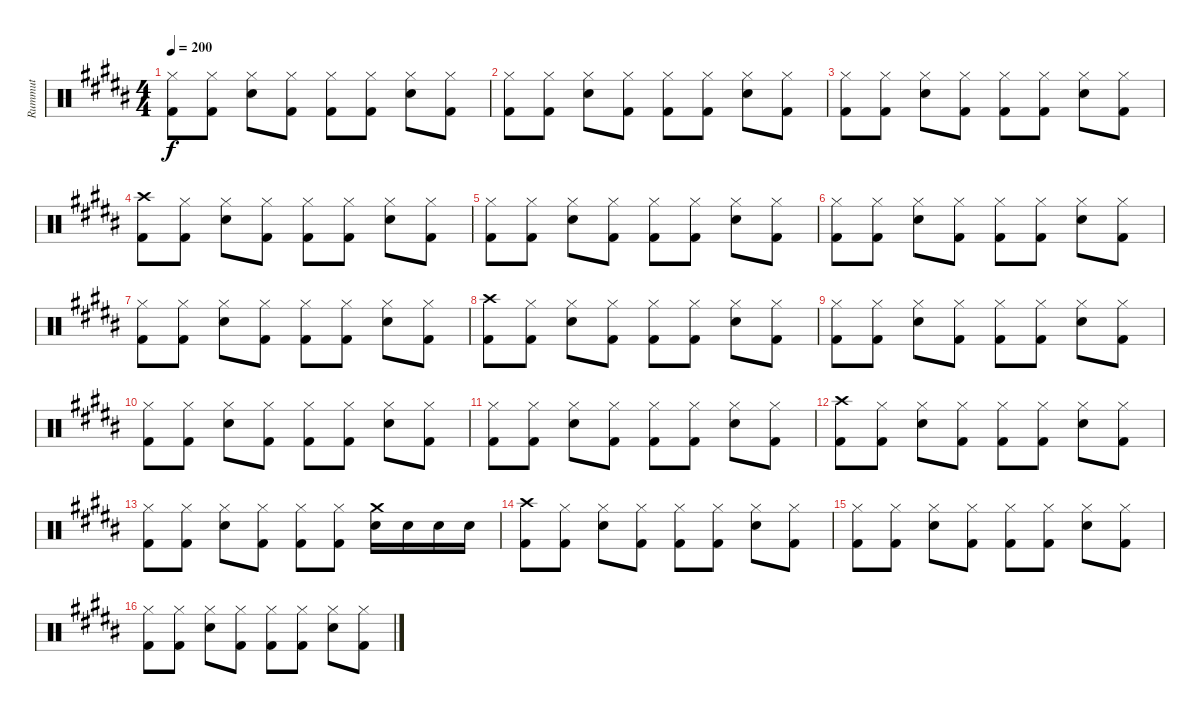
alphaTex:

\track ("Rummut" "Rummut") {instrument percussion}
\staff {score}
\articulation defaults
\ts (4 4)
\tempo 200
\clef neutral
\ks b
("Hi-Hat (closed)" "Kick (hit) 2").8{dy f} ("Hi-Hat (closed)" "Kick (hit) 2").8 ("Hi-Hat (closed)" "Electric Snare (hit)").8 ("Hi-Hat (closed)" "Kick (hit) 2").8 ("Hi-Hat (closed)" "Kick (hit) 2").8 ("Hi-Hat (closed)" "Kick (hit) 2").8 ("Hi-Hat (closed)" "Electric Snare (hit)").8 ("Hi-Hat (closed)" "Kick (hit) 2").8 |
("Hi-Hat (closed)" "Kick (hit) 2").8 ("Hi-Hat (closed)" "Kick (hit) 2").8 ("Hi-Hat (closed)" "Electric Snare (hit)").8 ("Hi-Hat (closed)" "Kick (hit) 2").8 ("Hi-Hat (closed)" "Kick (hit) 2").8 ("Hi-Hat (closed)" "Kick (hit) 2").8 ("Hi-Hat (closed)" "Electric Snare (hit)").8 ("Hi-Hat (closed)" "Kick (hit) 2").8 |
("Hi-Hat (closed)" "Kick (hit) 2").8 ("Hi-Hat (closed)" "Kick (hit) 2").8 ("Hi-Hat (closed)" "Electric Snare (hit)").8 ("Hi-Hat (closed)" "Kick (hit) 2").8 ("Hi-Hat (closed)" "Kick (hit) 2").8 ("Hi-Hat (closed)" "Kick (hit) 2").8 ("Hi-Hat (closed)" "Electric Snare (hit)").8 ("Hi-Hat (closed)" "Kick (hit) 2").8 |
("Crash high (hit)" "Kick (hit) 2").8 ("Hi-Hat (closed)" "Kick (hit) 2").8 ("Hi-Hat (closed)" "Electric Snare (hit)").8 ("Hi-Hat (closed)" "Kick (hit) 2").8 ("Hi-Hat (closed)" "Kick (hit) 2").8 ("Hi-Hat (closed)" "Kick (hit) 2").8 ("Hi-Hat (closed)" "Electric Snare (hit)").8 ("Hi-Hat (closed)" "Kick (hit) 2").8 |
("Hi-Hat (closed)" "Kick (hit) 2").8 ("Hi-Hat (closed)" "Kick (hit) 2").8 ("Hi-Hat (closed)" "Electric Snare (hit)").8 ("Hi-Hat (closed)" "Kick (hit) 2").8 ("Hi-Hat (closed)" "Kick (hit) 2").8 ("Hi-Hat (closed)" "Kick (hit) 2").8 ("Hi-Hat (closed)" "Electric Snare (hit)").8 ("Hi-Hat (closed)" "Kick (hit) 2").8 |
("Hi-Hat (closed)" "Kick (hit) 2").8 ("Hi-Hat (closed)" "Kick (hit) 2").8 ("Hi-Hat (closed)" "Electric Snare (hit)").8 ("Hi-Hat (closed)" "Kick (hit) 2").8 ("Hi-Hat (closed)" "Kick (hit) 2").8 ("Hi-Hat (closed)" "Kick (hit) 2").8 ("Hi-Hat (closed)" "Electric Snare (hit)").8 ("Hi-Hat (closed)" "Kick (hit) 2").8 |
("Hi-Hat (closed)" "Kick (hit) 2").8 ("Hi-Hat (closed)" "Kick (hit) 2").8 ("Hi-Hat (closed)" "Electric Snare (hit)").8 ("Hi-Hat (closed)" "Kick (hit) 2").8 ("Hi-Hat (closed)" "Kick (hit) 2").8 ("Hi-Hat (closed)" "Kick (hit) 2").8 ("Hi-Hat (closed)" "Electric Snare (hit)").8 ("Hi-Hat (closed)" "Kick (hit) 2").8 |
("Crash high (hit)" "Kick (hit) 2").8 ("Hi-Hat (closed)" "Kick (hit) 2").8 ("Hi-Hat (closed)" "Electric Snare (hit)").8 ("Hi-Hat (closed)" "Kick (hit) 2").8 ("Hi-Hat (closed)" "Kick (hit) 2").8 ("Hi-Hat (closed)" "Kick (hit) 2").8 ("Hi-Hat (closed)" "Electric Snare (hit)").8 ("Hi-Hat (closed)" "Kick (hit) 2").8 |
("Hi-Hat (closed)" "Kick (hit) 2").8 ("Hi-Hat (closed)" "Kick (hit) 2").8 ("Hi-Hat (closed)" "Electric Snare (hit)").8 ("Hi-Hat (closed)" "Kick (hit) 2").8 ("Hi-Hat (closed)" "Kick (hit) 2").8 ("Hi-Hat (closed)" "Kick (hit) 2").8 ("Hi-Hat (closed)" "Electric Snare (hit)").8 ("Hi-Hat (closed)" "Kick (hit) 2").8 |
("Hi-Hat (closed)" "Kick (hit) 2").8 ("Hi-Hat (closed)" "Kick (hit) 2").8 ("Hi-Hat (closed)" "Electric Snare (hit)").8 ("Hi-Hat (closed)" "Kick (hit) 2").8 ("Hi-Hat (closed)" "Kick (hit) 2").8 ("Hi-Hat (closed)" "Kick (hit) 2").8 ("Hi-Hat (closed)" "Electric Snare (hit)").8 ("Hi-Hat (closed)" "Kick (hit) 2").8 |
("Hi-Hat (closed)" "Kick (hit) 2").8 ("Hi-Hat (closed)" "Kick (hit) 2").8 ("Hi-Hat (closed)" "Electric Snare (hit)").8 ("Hi-Hat (closed)" "Kick (hit) 2").8 ("Hi-Hat (closed)" "Kick (hit) 2").8 ("Hi-Hat (closed)" "Kick (hit) 2").8 ("Hi-Hat (closed)" "Electric Snare (hit)").8 ("Hi-Hat (closed)" "Kick (hit) 2").8 |
("Crash high (hit)" "Kick (hit) 2").8 ("Hi-Hat (closed)" "Kick (hit) 2").8 ("Hi-Hat (closed)" "Electric Snare (hit)").8 ("Hi-Hat (closed)" "Kick (hit) 2").8 ("Hi-Hat (closed)" "Kick (hit) 2").8 ("Hi-Hat (closed)" "Kick (hit) 2").8 ("Hi-Hat (closed)" "Electric Snare (hit)").8 ("Hi-Hat (closed)" "Kick (hit) 2").8 |
("Hi-Hat (closed)" "Kick (hit) 2").8 ("Hi-Hat (closed)" "Kick (hit) 2").8 ("Hi-Hat (closed)" "Electric Snare (hit)").8 ("Hi-Hat (closed)" "Kick (hit) 2").8 ("Hi-Hat (closed)" "Kick (hit) 2").8 ("Hi-Hat (closed)" "Kick (hit) 2").8 ("Crash medium (hit)" "Electric Snare (hit)").16 "Electric Snare (hit)".16 "Electric Snare (hit)".16 "Electric Snare (hit)".16 |
("Crash high (hit)" "Kick (hit) 2").8 ("Hi-Hat (closed)" "Kick (hit) 2").8 ("Hi-Hat (closed)" "Electric Snare (hit)").8 ("Hi-Hat (closed)" "Kick (hit) 2").8 ("Hi-Hat (closed)" "Kick (hit) 2").8 ("Hi-Hat (closed)" "Kick (hit) 2").8 ("Hi-Hat (closed)" "Electric Snare (hit)").8 ("Hi-Hat (closed)" "Kick (hit) 2").8 |
("Hi-Hat (closed)" "Kick (hit) 2").8 ("Hi-Hat (closed)" "Kick (hit) 2").8 ("Hi-Hat (closed)" "Electric Snare (hit)").8 ("Hi-Hat (closed)" "Kick (hit) 2").8 ("Hi-Hat (closed)" "Kick (hit) 2").8 ("Hi-Hat (closed)" "Kick (hit) 2").8 ("Hi-Hat (closed)" "Electric Snare (hit)").8 ("Hi-Hat (closed)" "Kick (hit) 2").8 |
("Hi-Hat (closed)" "Kick (hit) 2").8 ("Hi-Hat (closed)" "Kick (hit) 2").8 ("Hi-Hat (closed)" "Electric Snare (hit)").8 ("Hi-Hat (closed)" "Kick (hit) 2").8 ("Hi-Hat (closed)" "Kick (hit) 2").8 ("Hi-Hat (closed)" "Kick (hit) 2").8 ("Hi-Hat (closed)" "Electric Snare (hit)").8 ("Hi-Hat (closed)" "Kick (hit) 2").8
